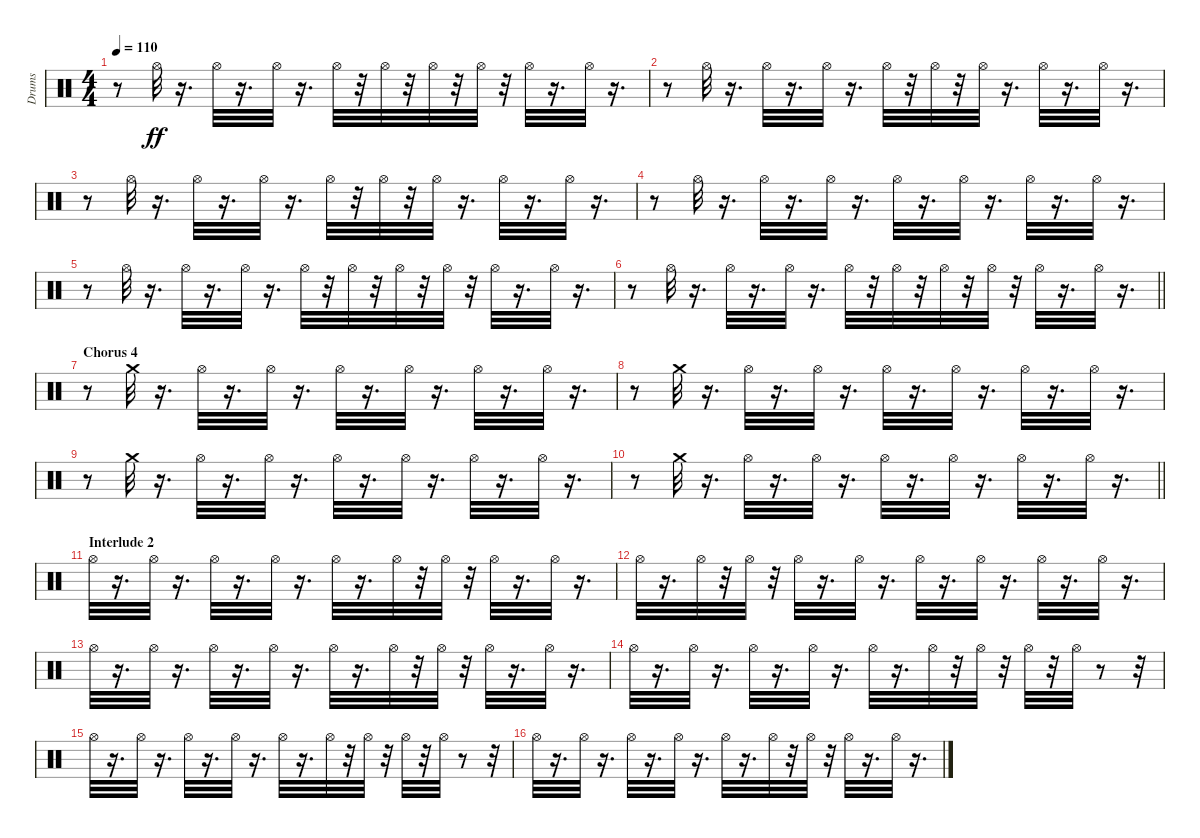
\track ("Drums" "Drums") {instrument percussion}
\staff {score}
\articulation defaults
\ts (4 4)
\tempo 110
\clef neutral
\ks c
r.8{dy ff} "Hi-Hat (open)".32 r.16{d} "Hi-Hat (open)".32 r.16{d} "Hi-Hat (open)".32 r.16{d} "Hi-Hat (open)".32 r.32 "Hi-Hat (open)".32 r.32 "Hi-Hat (open)".32 r.32 "Hi-Hat (open)".32 r.32 "Hi-Hat (open)".32 r.16{d} "Hi-Hat (open)".32 r.16{d} |
r.8 "Hi-Hat (open)".32 r.16{d} "Hi-Hat (open)".32 r.16{d} "Hi-Hat (open)".32 r.16{d} "Hi-Hat (open)".32 r.32 "Hi-Hat (open)".32 r.32 "Hi-Hat (open)".32 r.16{d} "Hi-Hat (open)".32 r.16{d} "Hi-Hat (open)".32 r.16{d} |
r.8 "Hi-Hat (open)".32 r.16{d} "Hi-Hat (open)".32 r.16{d} "Hi-Hat (open)".32 r.16{d} "Hi-Hat (open)".32 r.32 "Hi-Hat (open)".32 r.32 "Hi-Hat (open)".32 r.16{d} "Hi-Hat (open)".32 r.16{d} "Hi-Hat (open)".32 r.16{d} |
r.8 "Hi-Hat (open)".32 r.16{d} "Hi-Hat (open)".32 r.16{d} "Hi-Hat (open)".32 r.16{d} "Hi-Hat (open)".32 r.16{d} "Hi-Hat (open)".32 r.16{d} "Hi-Hat (open)".32 r.16{d} "Hi-Hat (open)".32 r.16{d} |
r.8 "Hi-Hat (open)".32 r.16{d} "Hi-Hat (open)".32 r.16{d} "Hi-Hat (open)".32 r.16{d} "Hi-Hat (open)".32 r.32 "Hi-Hat (open)".32 r.32 "Hi-Hat (open)".32 r.32 "Hi-Hat (open)".32 r.32 "Hi-Hat (open)".32 r.16{d} "Hi-Hat (open)".32 r.16{d} |
\barLineRight lightlight
r.8 "Hi-Hat (open)".32 r.16{d} "Hi-Hat (open)".32 r.16{d} "Hi-Hat (open)".32 r.16{d} "Hi-Hat (open)".32 r.32 "Hi-Hat (open)".32 r.32 "Hi-Hat (open)".32 r.32 "Hi-Hat (open)".32 r.32 "Hi-Hat (open)".32 r.16{d} "Hi-Hat (open)".32 r.16{d} |
\section ("" "Chorus 4")
r.8 "Crash medium (hit)".32 r.16{d} "Hi-Hat (open)".32 r.16{d} "Hi-Hat (open)".32 r.16{d} "Hi-Hat (open)".32 r.16{d} "Hi-Hat (open)".32 r.16{d} "Hi-Hat (open)".32 r.16{d} "Hi-Hat (open)".32 r.16{d} |
r.8 "Crash medium (hit)".32 r.16{d} "Hi-Hat (open)".32 r.16{d} "Hi-Hat (open)".32 r.16{d} "Hi-Hat (open)".32 r.16{d} "Hi-Hat (open)".32 r.16{d} "Hi-Hat (open)".32 r.16{d} "Hi-Hat (open)".32 r.16{d} |
r.8 "Crash medium (hit)".32 r.16{d} "Hi-Hat (open)".32 r.16{d} "Hi-Hat (open)".32 r.16{d} "Hi-Hat (open)".32 r.16{d} "Hi-Hat (open)".32 r.16{d} "Hi-Hat (open)".32 r.16{d} "Hi-Hat (open)".32 r.16{d} |
\barLineRight lightlight
r.8 "Crash medium (hit)".32 r.16{d} "Hi-Hat (open)".32 r.16{d} "Hi-Hat (open)".32 r.16{d} "Hi-Hat (open)".32 r.16{d} "Hi-Hat (open)".32 r.16{d} "Hi-Hat (open)".32 r.16{d} "Hi-Hat (open)".32 r.16{d} |
\section ("" "Interlude 2")
"Hi-Hat (open)".32 r.16{d} "Hi-Hat (open)".32 r.16{d} "Hi-Hat (open)".32 r.16{d} "Hi-Hat (open)".32 r.16{d} "Hi-Hat (open)".32 r.16{d} "Hi-Hat (open)".32 r.32 "Hi-Hat (open)".32 r.32 "Hi-Hat (open)".32 r.16{d} "Hi-Hat (open)".32 r.16{d} |
"Hi-Hat (open)".32 r.16{d} "Hi-Hat (open)".32 r.32 "Hi-Hat (open)".32 r.32 "Hi-Hat (open)".32 r.16{d} "Hi-Hat (open)".32 r.16{d} "Hi-Hat (open)".32 r.16{d} "Hi-Hat (open)".32 r.16{d} "Hi-Hat (open)".32 r.16{d} "Hi-Hat (open)".32 r.16{d} |
"Hi-Hat (open)".32 r.16{d} "Hi-Hat (open)".32 r.16{d} "Hi-Hat (open)".32 r.16{d} "Hi-Hat (open)".32 r.16{d} "Hi-Hat (open)".32 r.16{d} "Hi-Hat (open)".32 r.32 "Hi-Hat (open)".32 r.32 "Hi-Hat (open)".32 r.16{d} "Hi-Hat (open)".32 r.16{d} |
"Hi-Hat (open)".32 r.16{d} "Hi-Hat (open)".32 r.16{d} "Hi-Hat (open)".32 r.16{d} "Hi-Hat (open)".32 r.16{d} "Hi-Hat (open)".32 r.16{d} "Hi-Hat (open)".32 r.32 "Hi-Hat (open)".32 r.32 "Hi-Hat (open)".32 r.32 "Hi-Hat (open)".32 r.8 r.32 |
"Hi-Hat (open)".32 r.16{d} "Hi-Hat (open)".32 r.16{d} "Hi-Hat (open)".32 r.16{d} "Hi-Hat (open)".32 r.16{d} "Hi-Hat (open)".32 r.16{d} "Hi-Hat (open)".32 r.32 "Hi-Hat (open)".32 r.32 "Hi-Hat (open)".32 r.32 "Hi-Hat (open)".32 r.8 r.32 |
"Hi-Hat (open)".32 r.16{d} "Hi-Hat (open)".32 r.16{d} "Hi-Hat (open)".32 r.16{d} "Hi-Hat (open)".32 r.16{d} "Hi-Hat (open)".32 r.16{d} "Hi-Hat (open)".32 r.32 "Hi-Hat (open)".32 r.32 "Hi-Hat (open)".32 r.16{d} "Hi-Hat (open)".32 r.16{d}
